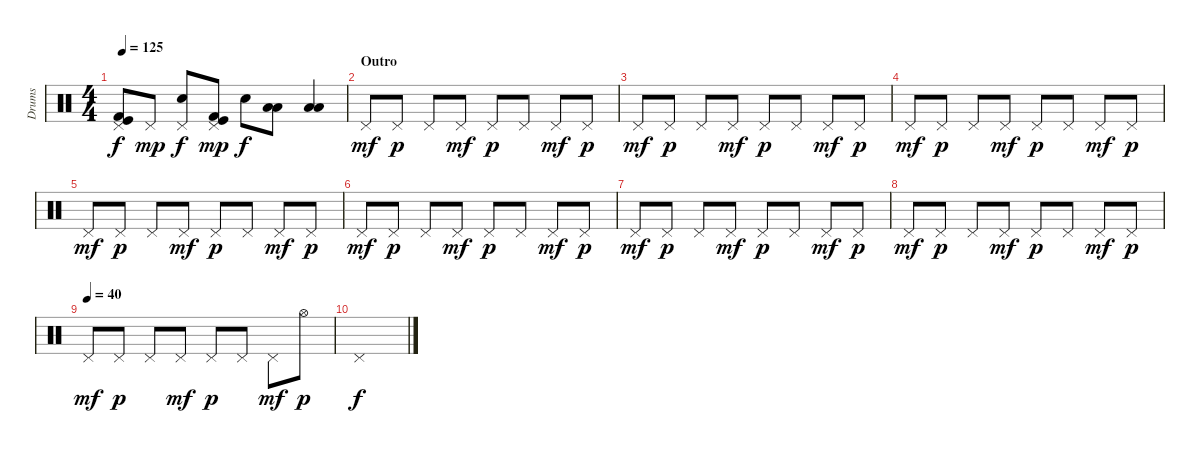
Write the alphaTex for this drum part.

\track ("Drums" "Drums") {instrument percussion}
\staff {score}
\articulation defaults
\ts (4 4)
\tempo 125
\clef neutral
\ks c
("Pedal Hi-Hat (hit)" "Kick (hit) 2" "Kick (hit)").8{dy f} "Pedal Hi-Hat (hit)".8{dy mp} ("Pedal Hi-Hat (hit)" "Electric Snare (hit)").8{dy f} ("Pedal Hi-Hat (hit)" "Kick (hit) 2" "Kick (hit)").8{dy mp} "Electric Snare (hit)".8{dy f} ("Low Tom (hit)" "Low Tom (hit)").8 ("Low Tom (hit)" "Low Tom (hit)").4 |
\section ("" "Outro")
"Pedal Hi-Hat (hit)".8{dy mf} "Pedal Hi-Hat (hit)".8{dy p} "Pedal Hi-Hat (hit)".8 "Pedal Hi-Hat (hit)".8{dy mf} "Pedal Hi-Hat (hit)".8{dy p} "Pedal Hi-Hat (hit)".8 "Pedal Hi-Hat (hit)".8{dy mf} "Pedal Hi-Hat (hit)".8{dy p} |
"Pedal Hi-Hat (hit)".8{dy mf} "Pedal Hi-Hat (hit)".8{dy p} "Pedal Hi-Hat (hit)".8 "Pedal Hi-Hat (hit)".8{dy mf} "Pedal Hi-Hat (hit)".8{dy p} "Pedal Hi-Hat (hit)".8 "Pedal Hi-Hat (hit)".8{dy mf} "Pedal Hi-Hat (hit)".8{dy p} |
"Pedal Hi-Hat (hit)".8{dy mf} "Pedal Hi-Hat (hit)".8{dy p} "Pedal Hi-Hat (hit)".8 "Pedal Hi-Hat (hit)".8{dy mf} "Pedal Hi-Hat (hit)".8{dy p} "Pedal Hi-Hat (hit)".8 "Pedal Hi-Hat (hit)".8{dy mf} "Pedal Hi-Hat (hit)".8{dy p} |
"Pedal Hi-Hat (hit)".8{dy mf} "Pedal Hi-Hat (hit)".8{dy p} "Pedal Hi-Hat (hit)".8 "Pedal Hi-Hat (hit)".8{dy mf} "Pedal Hi-Hat (hit)".8{dy p} "Pedal Hi-Hat (hit)".8 "Pedal Hi-Hat (hit)".8{dy mf} "Pedal Hi-Hat (hit)".8{dy p} |
"Pedal Hi-Hat (hit)".8{dy mf} "Pedal Hi-Hat (hit)".8{dy p} "Pedal Hi-Hat (hit)".8 "Pedal Hi-Hat (hit)".8{dy mf} "Pedal Hi-Hat (hit)".8{dy p} "Pedal Hi-Hat (hit)".8 "Pedal Hi-Hat (hit)".8{dy mf} "Pedal Hi-Hat (hit)".8{dy p} |
"Pedal Hi-Hat (hit)".8{dy mf} "Pedal Hi-Hat (hit)".8{dy p} "Pedal Hi-Hat (hit)".8 "Pedal Hi-Hat (hit)".8{dy mf} "Pedal Hi-Hat (hit)".8{dy p} "Pedal Hi-Hat (hit)".8 "Pedal Hi-Hat (hit)".8{dy mf} "Pedal Hi-Hat (hit)".8{dy p} |
"Pedal Hi-Hat (hit)".8{dy mf} "Pedal Hi-Hat (hit)".8{dy p} "Pedal Hi-Hat (hit)".8 "Pedal Hi-Hat (hit)".8{dy mf} "Pedal Hi-Hat (hit)".8{dy p} "Pedal Hi-Hat (hit)".8 "Pedal Hi-Hat (hit)".8{dy mf} "Pedal Hi-Hat (hit)".8{dy p} |
\tempo (40)
"Pedal Hi-Hat (hit)".8{dy mf} "Pedal Hi-Hat (hit)".8{dy p} "Pedal Hi-Hat (hit)".8 "Pedal Hi-Hat (hit)".8{dy mf} "Pedal Hi-Hat (hit)".8{dy p} "Pedal Hi-Hat (hit)".8 "Pedal Hi-Hat (hit)".8{dy mf} "Hi-Hat (open)".8{dy p} |
"Pedal Hi-Hat (hit)".1{dy f}
